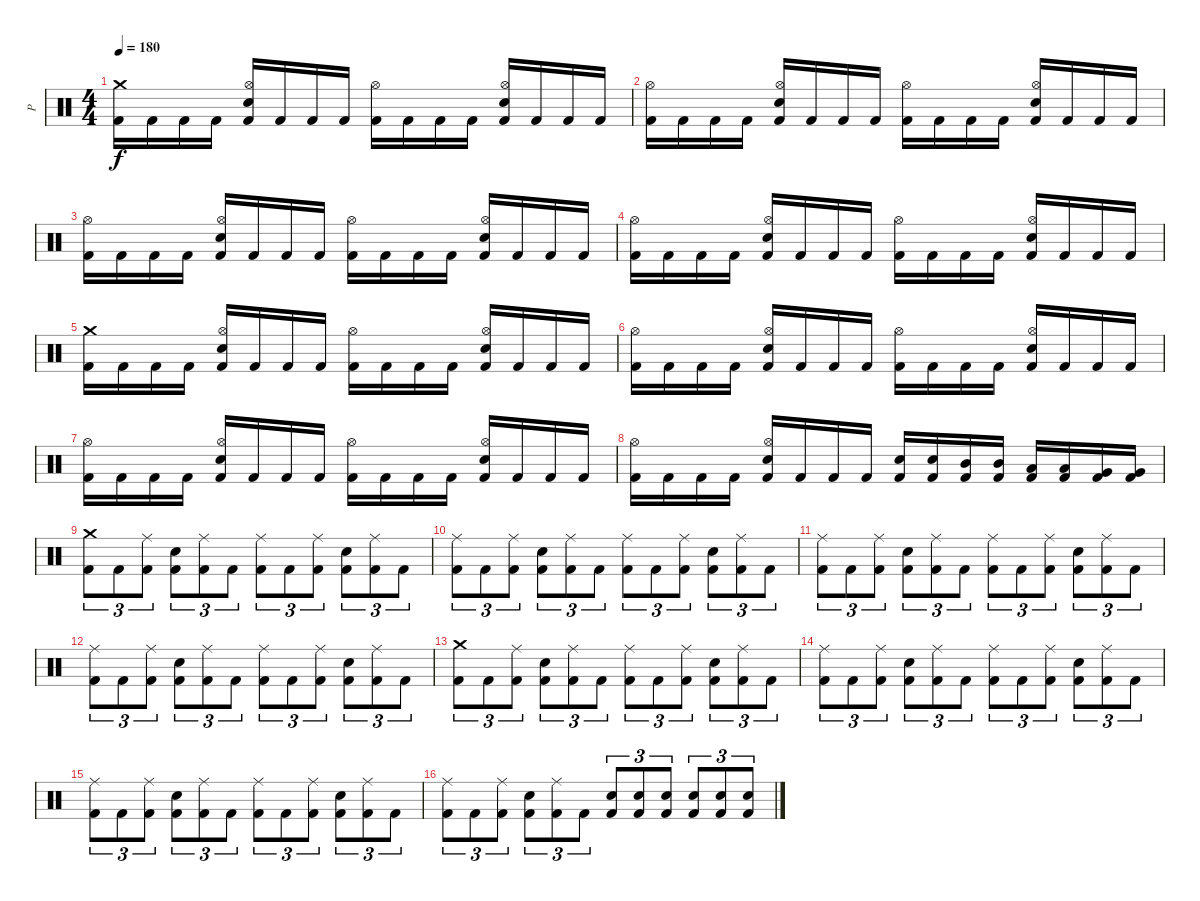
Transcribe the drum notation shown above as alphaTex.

\track ("P" "P") {instrument percussion}
\staff {score}
\articulation defaults
\ts (4 4)
\tempo 180
\clef neutral
\ks c
("Crash medium (hit)" "Kick (hit) 2").16{dy f} "Kick (hit) 2".16 "Kick (hit) 2".16 "Kick (hit) 2".16 ("Hi-Hat (open)" "Electric Snare (hit)" "Kick (hit) 2").16 "Kick (hit) 2".16 "Kick (hit) 2".16 "Kick (hit) 2".16 ("Hi-Hat (open)" "Kick (hit) 2").16 "Kick (hit) 2".16 "Kick (hit) 2".16 "Kick (hit) 2".16 ("Hi-Hat (open)" "Electric Snare (hit)" "Kick (hit) 2").16 "Kick (hit) 2".16 "Kick (hit) 2".16 "Kick (hit) 2".16 |
("Hi-Hat (open)" "Kick (hit) 2").16 "Kick (hit) 2".16 "Kick (hit) 2".16 "Kick (hit) 2".16 ("Hi-Hat (open)" "Electric Snare (hit)" "Kick (hit) 2").16 "Kick (hit) 2".16 "Kick (hit) 2".16 "Kick (hit) 2".16 ("Hi-Hat (open)" "Kick (hit) 2").16 "Kick (hit) 2".16 "Kick (hit) 2".16 "Kick (hit) 2".16 ("Hi-Hat (open)" "Electric Snare (hit)" "Kick (hit) 2").16 "Kick (hit) 2".16 "Kick (hit) 2".16 "Kick (hit) 2".16 |
("Hi-Hat (open)" "Kick (hit) 2").16 "Kick (hit) 2".16 "Kick (hit) 2".16 "Kick (hit) 2".16 ("Hi-Hat (open)" "Electric Snare (hit)" "Kick (hit) 2").16 "Kick (hit) 2".16 "Kick (hit) 2".16 "Kick (hit) 2".16 ("Hi-Hat (open)" "Kick (hit) 2").16 "Kick (hit) 2".16 "Kick (hit) 2".16 "Kick (hit) 2".16 ("Hi-Hat (open)" "Electric Snare (hit)" "Kick (hit) 2").16 "Kick (hit) 2".16 "Kick (hit) 2".16 "Kick (hit) 2".16 |
("Hi-Hat (open)" "Kick (hit) 2").16 "Kick (hit) 2".16 "Kick (hit) 2".16 "Kick (hit) 2".16 ("Hi-Hat (open)" "Electric Snare (hit)" "Kick (hit) 2").16 "Kick (hit) 2".16 "Kick (hit) 2".16 "Kick (hit) 2".16 ("Hi-Hat (open)" "Kick (hit) 2").16 "Kick (hit) 2".16 "Kick (hit) 2".16 "Kick (hit) 2".16 ("Hi-Hat (open)" "Electric Snare (hit)" "Kick (hit) 2").16 "Kick (hit) 2".16 "Kick (hit) 2".16 "Kick (hit) 2".16 |
("Crash medium (hit)" "Kick (hit) 2").16 "Kick (hit) 2".16 "Kick (hit) 2".16 "Kick (hit) 2".16 ("Hi-Hat (open)" "Electric Snare (hit)" "Kick (hit) 2").16 "Kick (hit) 2".16 "Kick (hit) 2".16 "Kick (hit) 2".16 ("Hi-Hat (open)" "Kick (hit) 2").16 "Kick (hit) 2".16 "Kick (hit) 2".16 "Kick (hit) 2".16 ("Hi-Hat (open)" "Electric Snare (hit)" "Kick (hit) 2").16 "Kick (hit) 2".16 "Kick (hit) 2".16 "Kick (hit) 2".16 |
("Hi-Hat (open)" "Kick (hit) 2").16 "Kick (hit) 2".16 "Kick (hit) 2".16 "Kick (hit) 2".16 ("Hi-Hat (open)" "Electric Snare (hit)" "Kick (hit) 2").16 "Kick (hit) 2".16 "Kick (hit) 2".16 "Kick (hit) 2".16 ("Hi-Hat (open)" "Kick (hit) 2").16 "Kick (hit) 2".16 "Kick (hit) 2".16 "Kick (hit) 2".16 ("Hi-Hat (open)" "Electric Snare (hit)" "Kick (hit) 2").16 "Kick (hit) 2".16 "Kick (hit) 2".16 "Kick (hit) 2".16 |
("Hi-Hat (open)" "Kick (hit) 2").16 "Kick (hit) 2".16 "Kick (hit) 2".16 "Kick (hit) 2".16 ("Hi-Hat (open)" "Electric Snare (hit)" "Kick (hit) 2").16 "Kick (hit) 2".16 "Kick (hit) 2".16 "Kick (hit) 2".16 ("Hi-Hat (open)" "Kick (hit) 2").16 "Kick (hit) 2".16 "Kick (hit) 2".16 "Kick (hit) 2".16 ("Hi-Hat (open)" "Electric Snare (hit)" "Kick (hit) 2").16 "Kick (hit) 2".16 "Kick (hit) 2".16 "Kick (hit) 2".16 |
("Hi-Hat (open)" "Kick (hit) 2").16 "Kick (hit) 2".16 "Kick (hit) 2".16 "Kick (hit) 2".16 ("Hi-Hat (open)" "Electric Snare (hit)" "Kick (hit) 2").16 "Kick (hit) 2".16 "Kick (hit) 2".16 "Kick (hit) 2".16 ("Electric Snare (hit)" "Kick (hit) 2").16 ("Electric Snare (hit)" "Kick (hit) 2").16 ("Mid Tom (hit)" "Kick (hit) 2").16 ("Mid Tom (hit)" "Kick (hit) 2").16 ("Low Tom (hit)" "Kick (hit) 2").16 ("Low Tom (hit)" "Kick (hit) 2").16 ("Very Low Tom (hit)" "Kick (hit) 2").16 ("Very Low Tom (hit)" "Kick (hit) 2").16 |
("Crash medium (hit)" "Kick (hit) 2").8{tu (3 2)} "Kick (hit) 2".8{tu (3 2)} ("Ride (middle)" "Kick (hit) 2").8{tu (3 2)} ("Electric Snare (hit)" "Kick (hit) 2").8{tu (3 2)} ("Ride (middle)" "Kick (hit) 2").8{tu (3 2)} "Kick (hit) 2".8{tu (3 2)} ("Ride (middle)" "Kick (hit) 2").8{tu (3 2)} "Kick (hit) 2".8{tu (3 2)} ("Ride (middle)" "Kick (hit) 2").8{tu (3 2)} ("Electric Snare (hit)" "Kick (hit) 2").8{tu (3 2)} ("Ride (middle)" "Kick (hit) 2").8{tu (3 2)} "Kick (hit) 2".8{tu (3 2)} |
("Ride (middle)" "Kick (hit) 2").8{tu (3 2)} "Kick (hit) 2".8{tu (3 2)} ("Ride (middle)" "Kick (hit) 2").8{tu (3 2)} ("Electric Snare (hit)" "Kick (hit) 2").8{tu (3 2)} ("Ride (middle)" "Kick (hit) 2").8{tu (3 2)} "Kick (hit) 2".8{tu (3 2)} ("Ride (middle)" "Kick (hit) 2").8{tu (3 2)} "Kick (hit) 2".8{tu (3 2)} ("Ride (middle)" "Kick (hit) 2").8{tu (3 2)} ("Electric Snare (hit)" "Kick (hit) 2").8{tu (3 2)} ("Ride (middle)" "Kick (hit) 2").8{tu (3 2)} "Kick (hit) 2".8{tu (3 2)} |
("Ride (middle)" "Kick (hit) 2").8{tu (3 2)} "Kick (hit) 2".8{tu (3 2)} ("Ride (middle)" "Kick (hit) 2").8{tu (3 2)} ("Electric Snare (hit)" "Kick (hit) 2").8{tu (3 2)} ("Ride (middle)" "Kick (hit) 2").8{tu (3 2)} "Kick (hit) 2".8{tu (3 2)} ("Ride (middle)" "Kick (hit) 2").8{tu (3 2)} "Kick (hit) 2".8{tu (3 2)} ("Ride (middle)" "Kick (hit) 2").8{tu (3 2)} ("Electric Snare (hit)" "Kick (hit) 2").8{tu (3 2)} ("Ride (middle)" "Kick (hit) 2").8{tu (3 2)} "Kick (hit) 2".8{tu (3 2)} |
("Ride (middle)" "Kick (hit) 2").8{tu (3 2)} "Kick (hit) 2".8{tu (3 2)} ("Ride (middle)" "Kick (hit) 2").8{tu (3 2)} ("Electric Snare (hit)" "Kick (hit) 2").8{tu (3 2)} ("Ride (middle)" "Kick (hit) 2").8{tu (3 2)} "Kick (hit) 2".8{tu (3 2)} ("Ride (middle)" "Kick (hit) 2").8{tu (3 2)} "Kick (hit) 2".8{tu (3 2)} ("Ride (middle)" "Kick (hit) 2").8{tu (3 2)} ("Electric Snare (hit)" "Kick (hit) 2").8{tu (3 2)} ("Ride (middle)" "Kick (hit) 2").8{tu (3 2)} "Kick (hit) 2".8{tu (3 2)} |
("Crash medium (hit)" "Kick (hit) 2").8{tu (3 2)} "Kick (hit) 2".8{tu (3 2)} ("Ride (middle)" "Kick (hit) 2").8{tu (3 2)} ("Electric Snare (hit)" "Kick (hit) 2").8{tu (3 2)} ("Ride (middle)" "Kick (hit) 2").8{tu (3 2)} "Kick (hit) 2".8{tu (3 2)} ("Ride (middle)" "Kick (hit) 2").8{tu (3 2)} "Kick (hit) 2".8{tu (3 2)} ("Ride (middle)" "Kick (hit) 2").8{tu (3 2)} ("Electric Snare (hit)" "Kick (hit) 2").8{tu (3 2)} ("Ride (middle)" "Kick (hit) 2").8{tu (3 2)} "Kick (hit) 2".8{tu (3 2)} |
("Ride (middle)" "Kick (hit) 2").8{tu (3 2)} "Kick (hit) 2".8{tu (3 2)} ("Ride (middle)" "Kick (hit) 2").8{tu (3 2)} ("Electric Snare (hit)" "Kick (hit) 2").8{tu (3 2)} ("Ride (middle)" "Kick (hit) 2").8{tu (3 2)} "Kick (hit) 2".8{tu (3 2)} ("Ride (middle)" "Kick (hit) 2").8{tu (3 2)} "Kick (hit) 2".8{tu (3 2)} ("Ride (middle)" "Kick (hit) 2").8{tu (3 2)} ("Electric Snare (hit)" "Kick (hit) 2").8{tu (3 2)} ("Ride (middle)" "Kick (hit) 2").8{tu (3 2)} "Kick (hit) 2".8{tu (3 2)} |
("Ride (middle)" "Kick (hit) 2").8{tu (3 2)} "Kick (hit) 2".8{tu (3 2)} ("Ride (middle)" "Kick (hit) 2").8{tu (3 2)} ("Electric Snare (hit)" "Kick (hit) 2").8{tu (3 2)} ("Ride (middle)" "Kick (hit) 2").8{tu (3 2)} "Kick (hit) 2".8{tu (3 2)} ("Ride (middle)" "Kick (hit) 2").8{tu (3 2)} "Kick (hit) 2".8{tu (3 2)} ("Ride (middle)" "Kick (hit) 2").8{tu (3 2)} ("Electric Snare (hit)" "Kick (hit) 2").8{tu (3 2)} ("Ride (middle)" "Kick (hit) 2").8{tu (3 2)} "Kick (hit) 2".8{tu (3 2)} |
("Ride (middle)" "Kick (hit) 2").8{tu (3 2)} "Kick (hit) 2".8{tu (3 2)} ("Ride (middle)" "Kick (hit) 2").8{tu (3 2)} ("Electric Snare (hit)" "Kick (hit) 2").8{tu (3 2)} ("Ride (middle)" "Kick (hit) 2").8{tu (3 2)} "Kick (hit) 2".8{tu (3 2)} ("Electric Snare (hit)" "Kick (hit) 2").8{tu (3 2)} ("Electric Snare (hit)" "Kick (hit) 2").8{tu (3 2)} ("Electric Snare (hit)" "Kick (hit) 2").8{tu (3 2)} ("Electric Snare (hit)" "Kick (hit) 2").8{tu (3 2)} ("Electric Snare (hit)" "Kick (hit) 2").8{tu (3 2)} ("Electric Snare (hit)" "Kick (hit) 2").8{tu (3 2)}
